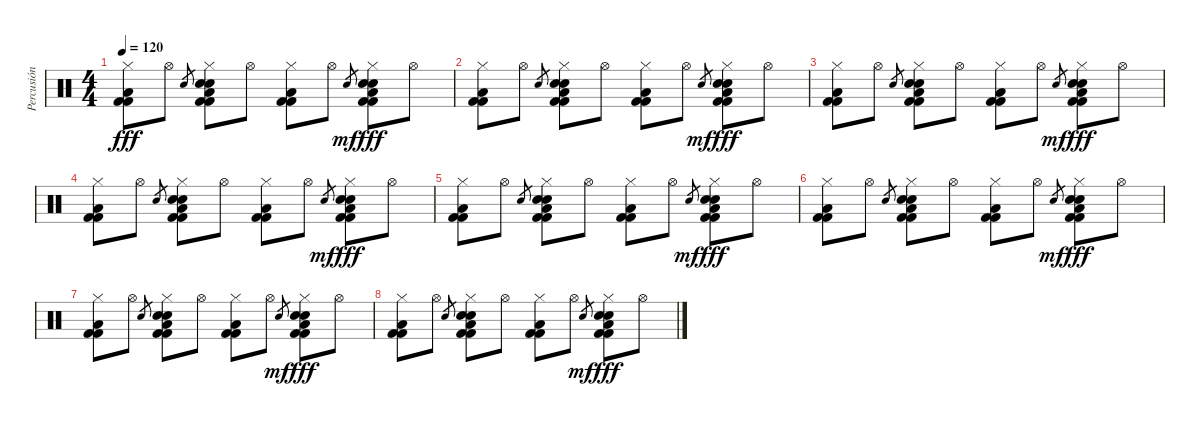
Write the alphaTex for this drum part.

\track ("Percusión I" "Percusión ") {instrument percussion}
\staff {score}
\articulation defaults
\ts (4 4)
\tempo 120
\clef neutral
\ks c
("Kick (hit) 2" "Hi-Hat (closed)" "Low Floor Tom (hit)" "Kick (hit) 2").8{dy fff} "Hi-Hat (open)".8 "Hand Clap (hit)".8{gr} ("Kick (hit) 2" "Hi-Hat (closed)" "Electric Snare (hit)" "Hand Clap (hit)" "Low Floor Tom (hit)" "Kick (hit) 2").8 "Hi-Hat (open)".8 ("Kick (hit) 2" "Hi-Hat (closed)" "Low Floor Tom (hit)" "Kick (hit) 2").8 "Hi-Hat (open)".8 "Hand Clap (hit)".8{gr dy mf} ("Kick (hit) 2" "Hi-Hat (closed)" "Electric Snare (hit)" "Hand Clap (hit)" "Low Floor Tom (hit)" "Kick (hit) 2").8{dy fff} "Hi-Hat (open)".8 |
("Kick (hit) 2" "Hi-Hat (closed)" "Low Floor Tom (hit)" "Kick (hit) 2").8 "Hi-Hat (open)".8 "Hand Clap (hit)".8{gr} ("Kick (hit) 2" "Hi-Hat (closed)" "Electric Snare (hit)" "Hand Clap (hit)" "Low Floor Tom (hit)" "Kick (hit) 2").8 "Hi-Hat (open)".8 ("Kick (hit) 2" "Hi-Hat (closed)" "Low Floor Tom (hit)" "Kick (hit) 2").8 "Hi-Hat (open)".8 "Hand Clap (hit)".8{gr dy mf} ("Kick (hit) 2" "Hi-Hat (closed)" "Electric Snare (hit)" "Hand Clap (hit)" "Low Floor Tom (hit)" "Kick (hit) 2").8{dy fff} "Hi-Hat (open)".8 |
("Kick (hit) 2" "Hi-Hat (closed)" "Low Floor Tom (hit)" "Kick (hit) 2").8 "Hi-Hat (open)".8 "Hand Clap (hit)".8{gr} ("Kick (hit) 2" "Hi-Hat (closed)" "Electric Snare (hit)" "Hand Clap (hit)" "Low Floor Tom (hit)" "Kick (hit) 2").8 "Hi-Hat (open)".8 ("Kick (hit) 2" "Hi-Hat (closed)" "Low Floor Tom (hit)" "Kick (hit) 2").8 "Hi-Hat (open)".8 "Hand Clap (hit)".8{gr dy mf} ("Kick (hit) 2" "Hi-Hat (closed)" "Electric Snare (hit)" "Hand Clap (hit)" "Low Floor Tom (hit)" "Kick (hit) 2").8{dy fff} "Hi-Hat (open)".8 |
("Kick (hit) 2" "Hi-Hat (closed)" "Low Floor Tom (hit)" "Kick (hit) 2").8 "Hi-Hat (open)".8 "Hand Clap (hit)".8{gr} ("Kick (hit) 2" "Hi-Hat (closed)" "Electric Snare (hit)" "Hand Clap (hit)" "Low Floor Tom (hit)" "Kick (hit) 2").8 "Hi-Hat (open)".8 ("Kick (hit) 2" "Hi-Hat (closed)" "Low Floor Tom (hit)" "Kick (hit) 2").8 "Hi-Hat (open)".8 "Hand Clap (hit)".8{gr dy mf} ("Kick (hit) 2" "Hi-Hat (closed)" "Electric Snare (hit)" "Hand Clap (hit)" "Low Floor Tom (hit)" "Kick (hit) 2").8{dy fff} "Hi-Hat (open)".8 |
("Kick (hit) 2" "Hi-Hat (closed)" "Low Floor Tom (hit)" "Kick (hit) 2").8 "Hi-Hat (open)".8 "Hand Clap (hit)".8{gr} ("Kick (hit) 2" "Hi-Hat (closed)" "Electric Snare (hit)" "Hand Clap (hit)" "Low Floor Tom (hit)" "Kick (hit) 2").8 "Hi-Hat (open)".8 ("Kick (hit) 2" "Hi-Hat (closed)" "Low Floor Tom (hit)" "Kick (hit) 2").8 "Hi-Hat (open)".8 "Hand Clap (hit)".8{gr dy mf} ("Kick (hit) 2" "Hi-Hat (closed)" "Electric Snare (hit)" "Hand Clap (hit)" "Low Floor Tom (hit)" "Kick (hit) 2").8{dy fff} "Hi-Hat (open)".8 |
("Kick (hit) 2" "Hi-Hat (closed)" "Low Floor Tom (hit)" "Kick (hit) 2").8 "Hi-Hat (open)".8 "Hand Clap (hit)".8{gr} ("Kick (hit) 2" "Hi-Hat (closed)" "Electric Snare (hit)" "Hand Clap (hit)" "Low Floor Tom (hit)" "Kick (hit) 2").8 "Hi-Hat (open)".8 ("Kick (hit) 2" "Hi-Hat (closed)" "Low Floor Tom (hit)" "Kick (hit) 2").8 "Hi-Hat (open)".8 "Hand Clap (hit)".8{gr dy mf} ("Kick (hit) 2" "Hi-Hat (closed)" "Electric Snare (hit)" "Hand Clap (hit)" "Low Floor Tom (hit)" "Kick (hit) 2").8{dy fff} "Hi-Hat (open)".8 |
("Kick (hit) 2" "Hi-Hat (closed)" "Low Floor Tom (hit)" "Kick (hit) 2").8 "Hi-Hat (open)".8 "Hand Clap (hit)".8{gr} ("Kick (hit) 2" "Hi-Hat (closed)" "Electric Snare (hit)" "Hand Clap (hit)" "Low Floor Tom (hit)" "Kick (hit) 2").8 "Hi-Hat (open)".8 ("Kick (hit) 2" "Hi-Hat (closed)" "Low Floor Tom (hit)" "Kick (hit) 2").8 "Hi-Hat (open)".8 "Hand Clap (hit)".8{gr dy mf} ("Kick (hit) 2" "Hi-Hat (closed)" "Electric Snare (hit)" "Hand Clap (hit)" "Low Floor Tom (hit)" "Kick (hit) 2").8{dy fff} "Hi-Hat (open)".8 |
("Kick (hit) 2" "Hi-Hat (closed)" "Low Floor Tom (hit)" "Kick (hit) 2").8 "Hi-Hat (open)".8 "Hand Clap (hit)".8{gr} ("Kick (hit) 2" "Hi-Hat (closed)" "Electric Snare (hit)" "Hand Clap (hit)" "Low Floor Tom (hit)" "Kick (hit) 2").8 "Hi-Hat (open)".8 ("Kick (hit) 2" "Hi-Hat (closed)" "Low Floor Tom (hit)" "Kick (hit) 2").8 "Hi-Hat (open)".8 "Hand Clap (hit)".8{gr dy mf} ("Kick (hit) 2" "Hi-Hat (closed)" "Electric Snare (hit)" "Hand Clap (hit)" "Low Floor Tom (hit)" "Kick (hit) 2").8{dy fff} "Hi-Hat (open)".8
